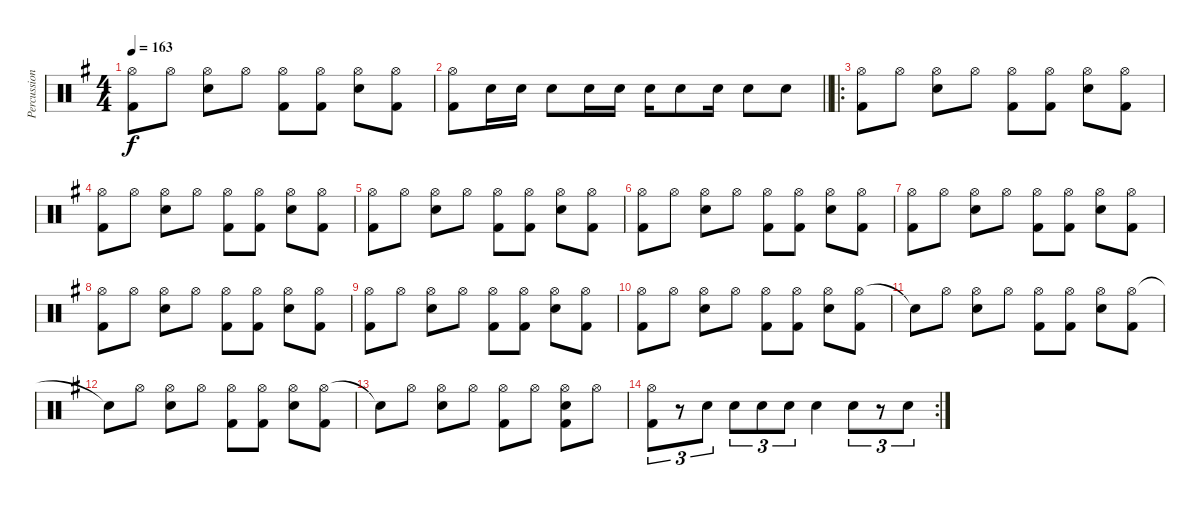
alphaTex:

\track ("Percussion" "Percussion") {instrument percussion}
\staff {score}
\articulation defaults
\ts (4 4)
\tempo 163
\clef neutral
\ks g
("Hi-Hat (open)" "Kick (hit) 2").8{dy f} "Hi-Hat (open)".8 ("Hi-Hat (open)" "Snare (hit) 2").8 "Hi-Hat (open)".8 ("Hi-Hat (open)" "Kick (hit) 2").8 ("Hi-Hat (open)" "Kick (hit) 2").8 ("Hi-Hat (open)" "Snare (hit) 2").8 ("Hi-Hat (open)" "Kick (hit) 2").8 |
\barLineRight lightlight
("Hi-Hat (open)" "Kick (hit) 2").8 "Snare (hit) 2".16 "Snare (hit) 2".16 "Snare (hit) 2".8 "Snare (hit) 2".16 "Snare (hit) 2".16 "Snare (hit) 2".16 "Snare (hit) 2".8 "Snare (hit) 2".16 "Snare (hit) 2".8 "Snare (hit) 2".8 |
\ro
("Hi-Hat (open)" "Kick (hit) 2").8 "Hi-Hat (open)".8 ("Hi-Hat (open)" "Snare (hit) 2").8 "Hi-Hat (open)".8 ("Hi-Hat (open)" "Kick (hit) 2").8 ("Hi-Hat (open)" "Kick (hit) 2").8 ("Hi-Hat (open)" "Snare (hit) 2").8 ("Hi-Hat (open)" "Kick (hit) 2").8 |
("Hi-Hat (open)" "Kick (hit) 2").8 "Hi-Hat (open)".8 ("Hi-Hat (open)" "Snare (hit) 2").8 "Hi-Hat (open)".8 ("Hi-Hat (open)" "Kick (hit) 2").8 ("Hi-Hat (open)" "Kick (hit) 2").8 ("Hi-Hat (open)" "Snare (hit) 2").8 ("Hi-Hat (open)" "Kick (hit) 2").8 |
("Hi-Hat (open)" "Kick (hit) 2").8 "Hi-Hat (open)".8 ("Hi-Hat (open)" "Snare (hit) 2").8 "Hi-Hat (open)".8 ("Hi-Hat (open)" "Kick (hit) 2").8 ("Hi-Hat (open)" "Kick (hit) 2").8 ("Hi-Hat (open)" "Snare (hit) 2").8 ("Hi-Hat (open)" "Kick (hit) 2").8 |
("Hi-Hat (open)" "Kick (hit) 2").8 "Hi-Hat (open)".8 ("Hi-Hat (open)" "Snare (hit) 2").8 "Hi-Hat (open)".8 ("Hi-Hat (open)" "Kick (hit) 2").8 ("Hi-Hat (open)" "Kick (hit) 2").8 ("Hi-Hat (open)" "Snare (hit) 2").8 ("Hi-Hat (open)" "Kick (hit) 2").8 |
("Hi-Hat (open)" "Kick (hit) 2").8 "Hi-Hat (open)".8 ("Hi-Hat (open)" "Snare (hit) 2").8 "Hi-Hat (open)".8 ("Hi-Hat (open)" "Kick (hit) 2").8 ("Hi-Hat (open)" "Kick (hit) 2").8 ("Hi-Hat (open)" "Snare (hit) 2").8 ("Hi-Hat (open)" "Kick (hit) 2").8 |
("Hi-Hat (open)" "Kick (hit) 2").8 "Hi-Hat (open)".8 ("Hi-Hat (open)" "Snare (hit) 2").8 "Hi-Hat (open)".8 ("Hi-Hat (open)" "Kick (hit) 2").8 ("Hi-Hat (open)" "Kick (hit) 2").8 ("Hi-Hat (open)" "Snare (hit) 2").8 ("Hi-Hat (open)" "Kick (hit) 2").8 |
("Hi-Hat (open)" "Kick (hit) 2").8 "Hi-Hat (open)".8 ("Hi-Hat (open)" "Snare (hit) 2").8 "Hi-Hat (open)".8 ("Hi-Hat (open)" "Kick (hit) 2").8 ("Hi-Hat (open)" "Kick (hit) 2").8 ("Hi-Hat (open)" "Snare (hit) 2").8 ("Hi-Hat (open)" "Kick (hit) 2").8 |
("Hi-Hat (open)" "Kick (hit) 2").8 "Hi-Hat (open)".8 ("Hi-Hat (open)" "Snare (hit) 2").8 "Hi-Hat (open)".8 ("Hi-Hat (open)" "Kick (hit) 2").8 ("Hi-Hat (open)" "Kick (hit) 2").8 ("Hi-Hat (open)" "Snare (hit) 2").8 ("Hi-Hat (open)" "Kick (hit) 2").8 |
"Snare (hit)"{t}.8 "Hi-Hat (open)".8 ("Hi-Hat (open)" "Snare (hit) 2").8 "Hi-Hat (open)".8 ("Hi-Hat (open)" "Kick (hit) 2").8 ("Hi-Hat (open)" "Kick (hit) 2").8 ("Hi-Hat (open)" "Snare (hit) 2").8 ("Hi-Hat (open)" "Kick (hit) 2").8 |
"Snare (hit)"{t}.8 "Hi-Hat (open)".8 ("Hi-Hat (open)" "Snare (hit) 2").8 "Hi-Hat (open)".8 ("Hi-Hat (open)" "Kick (hit) 2").8 ("Hi-Hat (open)" "Kick (hit) 2").8 ("Hi-Hat (open)" "Snare (hit) 2").8 ("Hi-Hat (open)" "Kick (hit) 2").8 |
"Snare (hit)"{t}.8 "Hi-Hat (open)".8 ("Hi-Hat (open)" "Snare (hit) 2").8 "Hi-Hat (open)".8 ("Hi-Hat (open)" "Kick (hit) 2").8 "Hi-Hat (open)".8 ("Hi-Hat (open)" "Snare (hit) 2" "Kick (hit) 2").8 "Hi-Hat (open)".8 |
\rc 2
("Hi-Hat (open)" "Kick (hit) 2").8{tu (3 2)} r.8{tu (3 2)} "Snare (hit) 2".8{tu (3 2)} "Snare (hit) 2".8{tu (3 2)} "Snare (hit) 2".8{tu (3 2)} "Snare (hit) 2".8{tu (3 2)} "Snare (hit) 2".4 "Snare (hit) 2".8{tu (3 2)} r.8{tu (3 2)} "Snare (hit) 2".8{tu (3 2)}
